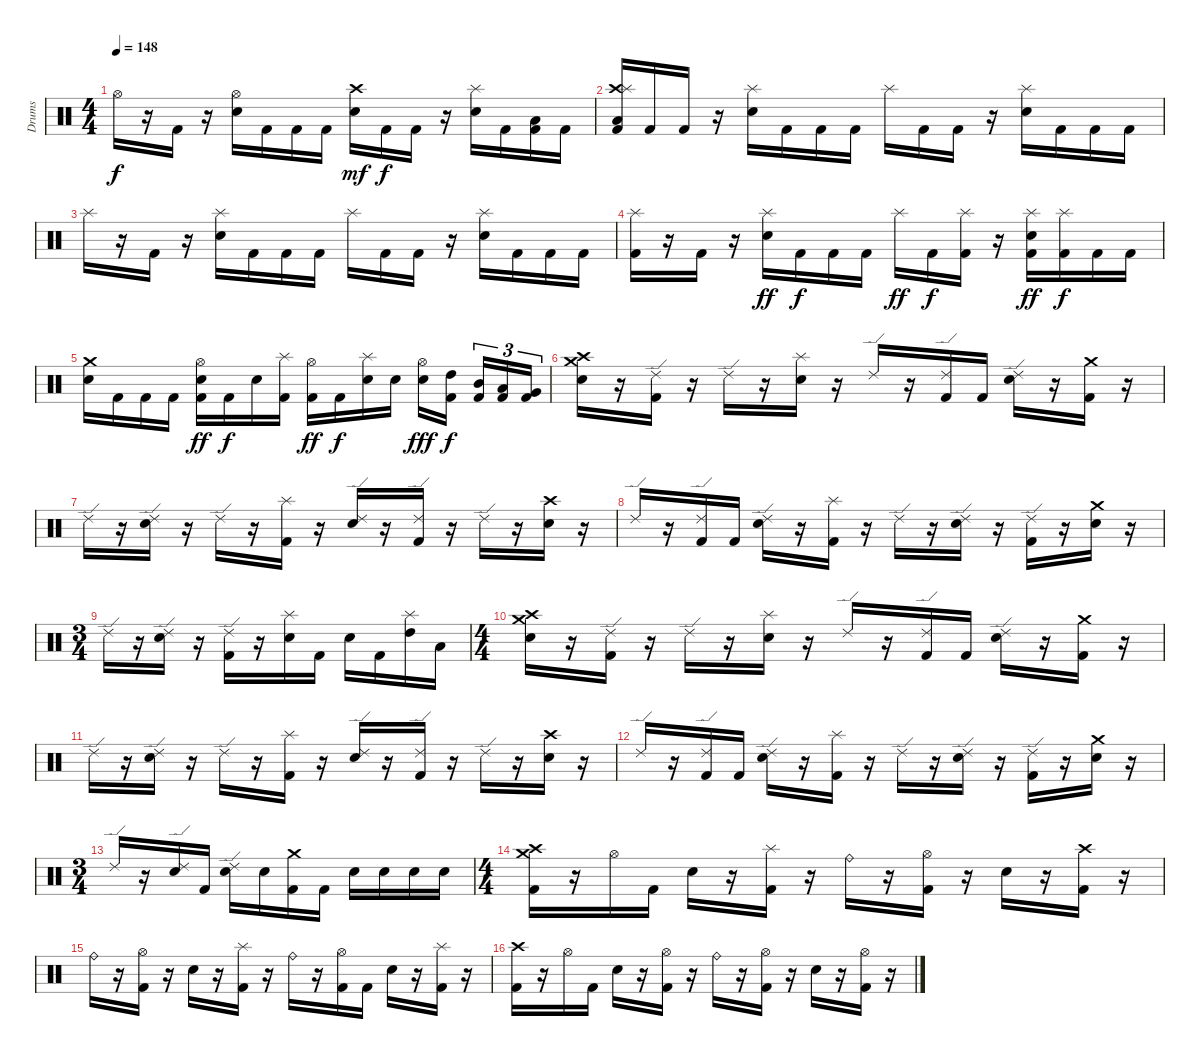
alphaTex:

\track ("Drums" "Drums") {instrument percussion}
\staff {score}
\articulation defaults
\ts (4 4)
\tempo 148
\clef neutral
\ks c "Hi-Hat (open)".16{dy f}
r.16 "Kick (hit) 2".16 r.16 ("Hi-Hat (open)" "Electric Snare (hit)").16 "Kick (hit) 2".16 "Kick (hit) 2".16 "Kick (hit) 2".16 ("Crash high (hit)" "Electric Snare (hit)").16{dy mf} "Kick (hit) 2".16{dy f} "Kick (hit) 2".16 r.16 ("Splash (hit)" "Electric Snare (hit)").16 "Kick (hit) 2".16 ("Low Tom (hit)" "Kick (hit) 2").16 "Kick (hit) 2".16 |
("Crash high (hit)" "Splash (hit)" "Low Floor Tom (hit)" "Kick (hit) 2").16 "Kick (hit) 2".16 "Kick (hit) 2".16 r.16 ("Splash (hit)" "Electric Snare (hit)").16 "Kick (hit) 2".16 "Kick (hit) 2".16 "Kick (hit) 2".16 "Splash (hit)".16 "Kick (hit) 2".16 "Kick (hit) 2".16 r.16 ("Splash (hit)" "Electric Snare (hit)").16 "Kick (hit) 2".16 "Kick (hit) 2".16 "Kick (hit) 2".16 |
"Splash (hit)".16 r.16 "Kick (hit) 2".16 r.16 ("Splash (hit)" "Electric Snare (hit)").16 "Kick (hit) 2".16 "Kick (hit) 2".16 "Kick (hit) 2".16 "Splash (hit)".16 "Kick (hit) 2".16 "Kick (hit) 2".16 r.16 ("Splash (hit)" "Electric Snare (hit)").16 "Kick (hit) 2".16 "Kick (hit) 2".16 "Kick (hit) 2".16 |
("Splash (hit)" "Kick (hit) 2").16 r.16 "Kick (hit) 2".16 r.16 ("Splash (hit)" "Electric Snare (hit)").16{dy ff} "Kick (hit) 2".16{dy f} "Kick (hit) 2".16 "Kick (hit) 2".16 "Splash (hit)".16{dy ff} "Kick (hit) 2".16{dy f} ("Splash (hit)" "Kick (hit) 2").16 r.16 ("Splash (hit)" "Electric Snare (hit)" "Kick (hit) 2").16{dy ff} ("Splash (hit)" "Kick (hit) 2").16{dy f} "Kick (hit) 2".16 "Kick (hit) 2".16 |
("Crash medium (hit)" "Electric Snare (hit)").16 "Kick (hit) 2".16 "Kick (hit) 2".16 "Kick (hit) 2".16 ("Hi-Hat (open)" "Electric Snare (hit)" "Kick (hit) 2").16{dy ff} "Kick (hit) 2".16{dy f} "Electric Snare (hit)".16 ("Splash (hit)" "Kick (hit) 2").16 ("Hi-Hat (open)" "Kick (hit) 2").16{dy ff} "Kick (hit) 2".16{dy f} ("Splash (hit)" "Electric Snare (hit)").16 "Electric Snare (hit)".16 ("Hi-Hat (open)" "Electric Snare (hit)").16{dy fff} ("High Tom (hit)" "Kick (hit) 2").16{dy f} ("Mid Tom (hit)" "Kick (hit) 2").16{tu (3 2)} ("Low Tom (hit)" "Kick (hit) 2").16{tu (3 2)} ("Very Low Tom (hit)" "Kick (hit) 2").16{tu (3 2)} |
("Crash medium (hit)" "Crash high (hit)" "Electric Snare (hit)").16 r.16 ("Ride (edge) 2" "Kick (hit) 2").16 r.16 "Ride (edge) 2".16 r.16 ("Splash (hit)" "Electric Snare (hit)").16 r.16 "Ride (edge) 2".16 r.16 ("Ride (edge) 2" "Kick (hit) 2").16 "Kick (hit) 2".16 ("Ride (edge) 2" "Electric Snare (hit)").16 r.16 ("Crash medium (hit)" "Kick (hit) 2").16 r.16 |
"Ride (edge) 2".16 r.16 ("Ride (edge) 2" "Electric Snare (hit)").16 r.16 "Ride (edge) 2".16 r.16 ("Splash (hit)" "Kick (hit) 2").16 r.16 ("Ride (edge) 2" "Electric Snare (hit)").16 r.16 ("Ride (edge) 2" "Kick (hit) 2").16 r.16 "Ride (edge) 2".16 r.16 ("Crash high (hit)" "Electric Snare (hit)").16 r.16 |
"Ride (edge) 2".16 r.16 ("Ride (edge) 2" "Kick (hit) 2").16 "Kick (hit) 2".16 ("Ride (edge) 2" "Electric Snare (hit)").16 r.16 ("Splash (hit)" "Kick (hit) 2").16 r.16 "Ride (edge) 2".16 r.16 ("Ride (edge) 2" "Electric Snare (hit)").16 r.16 ("Ride (edge) 2" "Kick (hit) 2").16 r.16 ("Crash medium (hit)" "Electric Snare (hit)").16 r.16 |
\ts (3 4)
"Ride (edge) 2".16 r.16 ("Ride (edge) 2" "Electric Snare (hit)").16 r.16 ("Ride (edge) 2" "Kick (hit) 2").16 r.16 ("Splash (hit)" "Electric Snare (hit)").16 "Kick (hit) 2".16 "Electric Snare (hit)".16 "Kick (hit) 2".16 ("Splash (hit)" "High Tom (hit)").16 "Low Tom (hit)".16 |
\ts (4 4)
("Crash medium (hit)" "Crash high (hit)" "Electric Snare (hit)").16 r.16 ("Ride (edge) 2" "Kick (hit) 2").16 r.16 "Ride (edge) 2".16 r.16 ("Splash (hit)" "Electric Snare (hit)").16 r.16 "Ride (edge) 2".16 r.16 ("Ride (edge) 2" "Kick (hit) 2").16 "Kick (hit) 2".16 ("Ride (edge) 2" "Electric Snare (hit)").16 r.16 ("Crash medium (hit)" "Kick (hit) 2").16 r.16 |
"Ride (edge) 2".16 r.16 ("Ride (edge) 2" "Electric Snare (hit)").16 r.16 "Ride (edge) 2".16 r.16 ("Splash (hit)" "Kick (hit) 2").16 r.16 ("Ride (edge) 2" "Electric Snare (hit)").16 r.16 ("Ride (edge) 2" "Kick (hit) 2").16 r.16 "Ride (edge) 2".16 r.16 ("Crash high (hit)" "Electric Snare (hit)").16 r.16 |
"Ride (edge) 2".16 r.16 ("Ride (edge) 2" "Kick (hit) 2").16 "Kick (hit) 2".16 ("Ride (edge) 2" "Electric Snare (hit)").16 r.16 ("Splash (hit)" "Kick (hit) 2").16 r.16 "Ride (edge) 2".16 r.16 ("Ride (edge) 2" "Electric Snare (hit)").16 r.16 ("Ride (edge) 2" "Kick (hit) 2").16 r.16 ("Crash medium (hit)" "Electric Snare (hit)").16 r.16 |
\ts (3 4)
"Ride (edge) 2".16 r.16 ("Ride (edge) 2" "Electric Snare (hit)").16 "Kick (hit) 2".16 ("Ride (edge) 2" "Electric Snare (hit)").16 "Electric Snare (hit)".16 ("Crash medium (hit)" "Kick (hit) 2").16 "Kick (hit) 2".16 "Electric Snare (hit)".16 "Electric Snare (hit)".16 "Electric Snare (hit)".16 "Electric Snare (hit)".16 |
\ts (4 4)
("Crash medium (hit)" "Crash high (hit)" "Kick (hit) 2").16 r.16 "Hi-Hat (open)".16 "Kick (hit) 2".16 "Electric Snare (hit)".16 r.16 ("Splash (hit)" "Kick (hit) 2").16 r.16 "Ride (bell)".16 r.16 ("Hi-Hat (open)" "Kick (hit) 2").16 r.16 "Electric Snare (hit)".16 r.16 ("Crash high (hit)" "Kick (hit) 2").16 r.16 |
"Ride (bell)".16 r.16 ("Hi-Hat (open)" "Kick (hit) 2").16 r.16 "Electric Snare (hit)".16 r.16 ("Splash (hit)" "Kick (hit) 2").16 r.16 "Ride (bell)".16 r.16 ("Hi-Hat (open)" "Kick (hit) 2").16 "Kick (hit) 2".16 "Electric Snare (hit)".16 r.16 ("Splash (hit)" "Kick (hit) 2").16 r.16 |
("Crash high (hit)" "Kick (hit) 2").16 r.16 "Hi-Hat (open)".16 "Kick (hit) 2".16 "Electric Snare (hit)".16 r.16 ("Hi-Hat (open)" "Kick (hit) 2").16 r.16 "Ride (bell)".16 r.16 ("Hi-Hat (open)" "Kick (hit) 2").16 r.16 "Electric Snare (hit)".16 r.16 ("Hi-Hat (open)" "Kick (hit) 2").16 r.16
